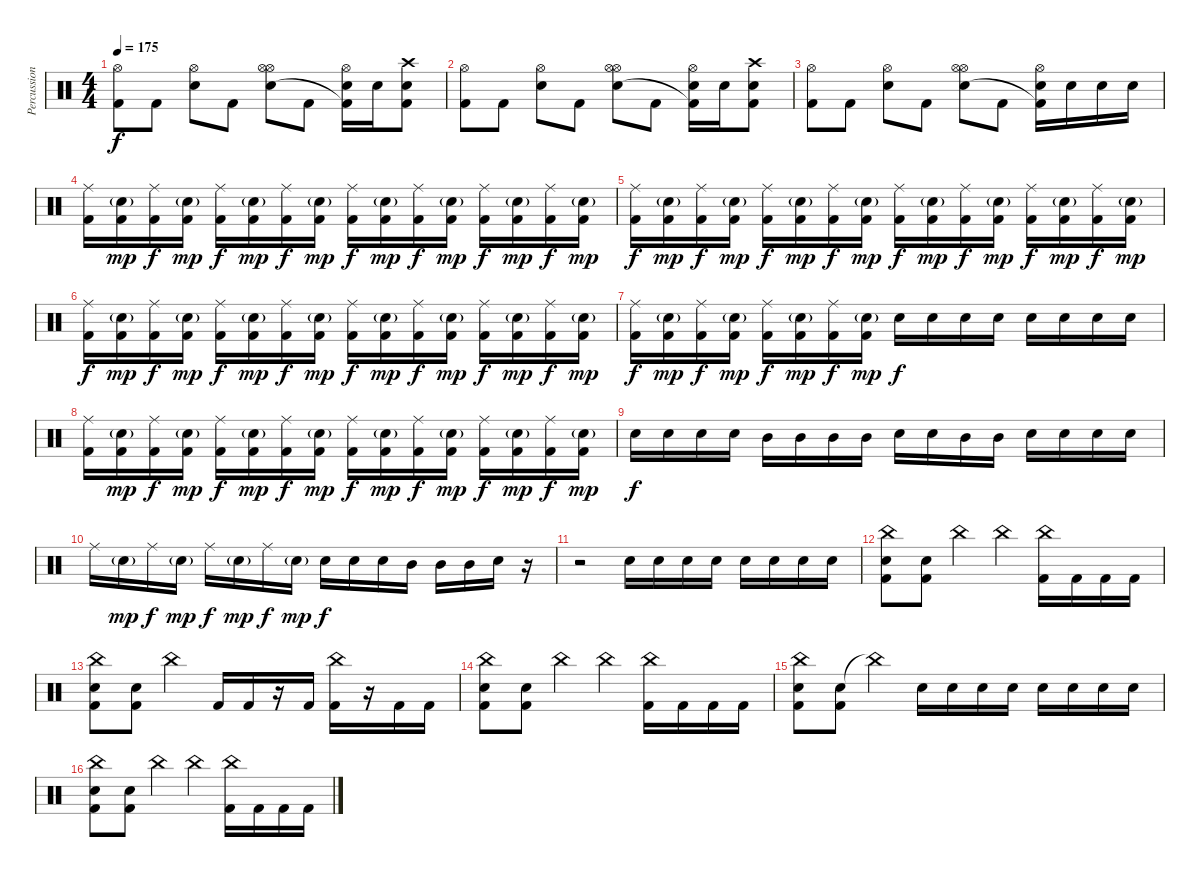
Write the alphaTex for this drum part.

\track ("Percussion" "Percussion") {instrument percussion}
\staff {score}
\articulation defaults
\ts (4 4)
\tempo 175
\clef neutral
\ks c
("Hi-Hat (open)" "Kick (hit) 2").8{dy f} "Kick (hit) 2".8 ("Hi-Hat (open)" "Snare (hit) 2").8 "Kick (hit) 2".8 ("Hi-Hat (open)" "Hi-Hat (open)" "Snare (hit) 2").8 "Kick (hit) 2".8 ("Hi-Hat (open)" "Snare (hit) 2" "Kick (hit) 2"{t}).16 "Snare (hit) 2".16 ("Crash high (hit)" "Snare (hit) 2" "Kick (hit) 2").8 |
("Hi-Hat (open)" "Kick (hit) 2").8 "Kick (hit) 2".8 ("Hi-Hat (open)" "Snare (hit) 2").8 "Kick (hit) 2".8 ("Hi-Hat (open)" "Hi-Hat (open)" "Snare (hit) 2").8 "Kick (hit) 2".8 ("Hi-Hat (open)" "Snare (hit) 2" "Kick (hit) 2"{t}).16 "Snare (hit) 2".16 ("Crash high (hit)" "Snare (hit) 2" "Kick (hit) 2").8 |
("Hi-Hat (open)" "Kick (hit) 2").8 "Kick (hit) 2".8 ("Hi-Hat (open)" "Snare (hit) 2").8 "Kick (hit) 2".8 ("Hi-Hat (open)" "Hi-Hat (open)" "Snare (hit) 2").8 "Kick (hit) 2".8 ("Hi-Hat (open)" "Electric Snare (hit)" "Kick (hit) 2"{t}).16 "Electric Snare (hit)".16 "Electric Snare (hit)".16 "Electric Snare (hit)".16 |
("Ride (middle)" "Kick (hit) 2").16 ("Snare (hit) 2"{g} "Kick (hit) 2").16{dy mp} ("Ride (middle)" "Kick (hit) 2").16{dy f} ("Snare (hit) 2"{g} "Kick (hit) 2").16{dy mp} ("Ride (middle)" "Kick (hit) 2").16{dy f} ("Snare (hit) 2"{g} "Kick (hit) 2").16{dy mp} ("Ride (middle)" "Kick (hit) 2").16{dy f} ("Snare (hit) 2"{g} "Kick (hit) 2").16{dy mp} ("Ride (middle)" "Kick (hit) 2").16{dy f} ("Snare (hit) 2"{g} "Kick (hit) 2").16{dy mp} ("Ride (middle)" "Kick (hit) 2").16{dy f} ("Snare (hit) 2"{g} "Kick (hit) 2").16{dy mp} ("Ride (middle)" "Kick (hit) 2").16{dy f} ("Snare (hit) 2"{g} "Kick (hit) 2").16{dy mp} ("Ride (middle)" "Kick (hit) 2").16{dy f} ("Snare (hit) 2"{g} "Kick (hit) 2").16{dy mp} |
("Ride (middle)" "Kick (hit) 2").16{dy f} ("Snare (hit) 2"{g} "Kick (hit) 2").16{dy mp} ("Ride (middle)" "Kick (hit) 2").16{dy f} ("Snare (hit) 2"{g} "Kick (hit) 2").16{dy mp} ("Ride (middle)" "Kick (hit) 2").16{dy f} ("Snare (hit) 2"{g} "Kick (hit) 2").16{dy mp} ("Ride (middle)" "Kick (hit) 2").16{dy f} ("Snare (hit) 2"{g} "Kick (hit) 2").16{dy mp} ("Ride (middle)" "Kick (hit) 2").16{dy f} ("Snare (hit) 2"{g} "Kick (hit) 2").16{dy mp} ("Ride (middle)" "Kick (hit) 2").16{dy f} ("Snare (hit) 2"{g} "Kick (hit) 2").16{dy mp} ("Ride (middle)" "Kick (hit) 2").16{dy f} ("Snare (hit) 2"{g} "Kick (hit) 2").16{dy mp} ("Ride (middle)" "Kick (hit) 2").16{dy f} ("Snare (hit) 2"{g} "Kick (hit) 2").16{dy mp} |
("Ride (middle)" "Kick (hit) 2").16{dy f} ("Snare (hit) 2"{g} "Kick (hit) 2").16{dy mp} ("Ride (middle)" "Kick (hit) 2").16{dy f} ("Snare (hit) 2"{g} "Kick (hit) 2").16{dy mp} ("Ride (middle)" "Kick (hit) 2").16{dy f} ("Snare (hit) 2"{g} "Kick (hit) 2").16{dy mp} ("Ride (middle)" "Kick (hit) 2").16{dy f} ("Snare (hit) 2"{g} "Kick (hit) 2").16{dy mp} ("Ride (middle)" "Kick (hit) 2").16{dy f} ("Snare (hit) 2"{g} "Kick (hit) 2").16{dy mp} ("Ride (middle)" "Kick (hit) 2").16{dy f} ("Snare (hit) 2"{g} "Kick (hit) 2").16{dy mp} ("Ride (middle)" "Kick (hit) 2").16{dy f} ("Snare (hit) 2"{g} "Kick (hit) 2").16{dy mp} ("Ride (middle)" "Kick (hit) 2").16{dy f} ("Snare (hit) 2"{g} "Kick (hit) 2").16{dy mp} |
("Ride (middle)" "Kick (hit) 2").16{dy f} ("Snare (hit) 2"{g} "Kick (hit) 2").16{dy mp} ("Ride (middle)" "Kick (hit) 2").16{dy f} ("Snare (hit) 2"{g} "Kick (hit) 2").16{dy mp} ("Ride (middle)" "Kick (hit) 2").16{dy f} ("Snare (hit) 2"{g} "Kick (hit) 2").16{dy mp} ("Ride (middle)" "Kick (hit) 2").16{dy f} ("Snare (hit) 2"{g} "Kick (hit) 2").16{dy mp} "Snare (hit) 2".16{dy f} "Snare (hit) 2".16 "Snare (hit) 2".16 "Snare (hit) 2".16 "Snare (hit) 2".16 "Snare (hit) 2".16 "Snare (hit) 2".16 "Snare (hit) 2".16 |
("Ride (middle)" "Kick (hit) 2").16 ("Snare (hit) 2"{g} "Kick (hit) 2").16{dy mp} ("Ride (middle)" "Kick (hit) 2").16{dy f} ("Snare (hit) 2"{g} "Kick (hit) 2").16{dy mp} ("Ride (middle)" "Kick (hit) 2").16{dy f} ("Snare (hit) 2"{g} "Kick (hit) 2").16{dy mp} ("Ride (middle)" "Kick (hit) 2").16{dy f} ("Snare (hit) 2"{g} "Kick (hit) 2").16{dy mp} ("Ride (middle)" "Kick (hit) 2").16{dy f} ("Snare (hit) 2"{g} "Kick (hit) 2").16{dy mp} ("Ride (middle)" "Kick (hit) 2").16{dy f} ("Snare (hit) 2"{g} "Kick (hit) 2").16{dy mp} ("Ride (middle)" "Kick (hit) 2").16{dy f} ("Snare (hit) 2"{g} "Kick (hit) 2").16{dy mp} ("Ride (middle)" "Kick (hit) 2").16{dy f} ("Snare (hit) 2"{g} "Kick (hit) 2").16{dy mp} |
"Electric Snare (hit)".16{dy f} "Electric Snare (hit)".16 "Electric Snare (hit)".16 "Electric Snare (hit)".16 "Mid Tom (hit)".16 "Mid Tom (hit)".16 "Mid Tom (hit)".16 "Mid Tom (hit)".16 "Electric Snare (hit)".16 "Electric Snare (hit)".16 "Mid Tom (hit)".16 "Mid Tom (hit)".16 "Electric Snare (hit)".16 "Electric Snare (hit)".16 "Electric Snare (hit)".16 "Electric Snare (hit)".16 |
"Ride (middle)".16 "Snare (hit) 2"{g}.16{dy mp} "Ride (middle)".16{dy f} "Snare (hit) 2"{g}.16{dy mp} "Ride (middle)".16{dy f} "Snare (hit) 2"{g}.16{dy mp} "Ride (middle)".16{dy f} "Snare (hit) 2"{g}.16{dy mp} "Electric Snare (hit)".16{dy f} "Electric Snare (hit)".16 "Electric Snare (hit)".16 "Mid Tom (hit)".16 "Mid Tom (hit)".16 "Mid Tom (hit)".16 "Electric Snare (hit)".16 r.16 |
r.2 "Electric Snare (hit)".16 "Electric Snare (hit)".16 "Electric Snare (hit)".16 "Electric Snare (hit)".16 "Electric Snare (hit)".16 "Electric Snare (hit)".16 "Electric Snare (hit)".16 "Electric Snare (hit)".16 |
("China (hit)" "Snare (hit) 2" "Kick (hit) 2").8 ("Snare (hit) 2" "Kick (hit) 2").8 "China (hit)".4 "China (hit)".4 ("China (hit)" "Kick (hit) 2").16 "Kick (hit) 2".16 "Kick (hit) 2".16 "Kick (hit) 2".16 |
("China (hit)" "Snare (hit) 2" "Kick (hit) 2").8 ("Snare (hit) 2" "Kick (hit) 2").8 "China (hit)".4 "Kick (hit) 2".16 "Kick (hit) 2".16 r.16 "Kick (hit) 2".16 ("China (hit)" "Kick (hit) 2").16 r.16 "Kick (hit) 2".16 "Kick (hit) 2".16 |
("China (hit)" "Snare (hit) 2" "Kick (hit) 2").8 ("Snare (hit) 2" "Kick (hit) 2").8 "China (hit)".4 "China (hit)".4 ("China (hit)" "Kick (hit) 2").16 "Kick (hit) 2".16 "Kick (hit) 2".16 "Kick (hit) 2".16 |
("China (hit)" "Snare (hit) 2" "Kick (hit) 2").8 ("Snare (hit) 2" "Kick (hit) 2").8 "China (hit)"{t}.4 "Electric Snare (hit)".16 "Electric Snare (hit)".16 "Electric Snare (hit)".16 "Electric Snare (hit)".16 "Electric Snare (hit)".16 "Electric Snare (hit)".16 "Electric Snare (hit)".16 "Electric Snare (hit)".16 |
("China (hit)" "Snare (hit) 2" "Kick (hit) 2").8 ("Snare (hit) 2" "Kick (hit) 2").8 "China (hit)".4 "China (hit)".4 ("China (hit)" "Kick (hit) 2").16 "Kick (hit) 2".16 "Kick (hit) 2".16 "Kick (hit) 2".16
